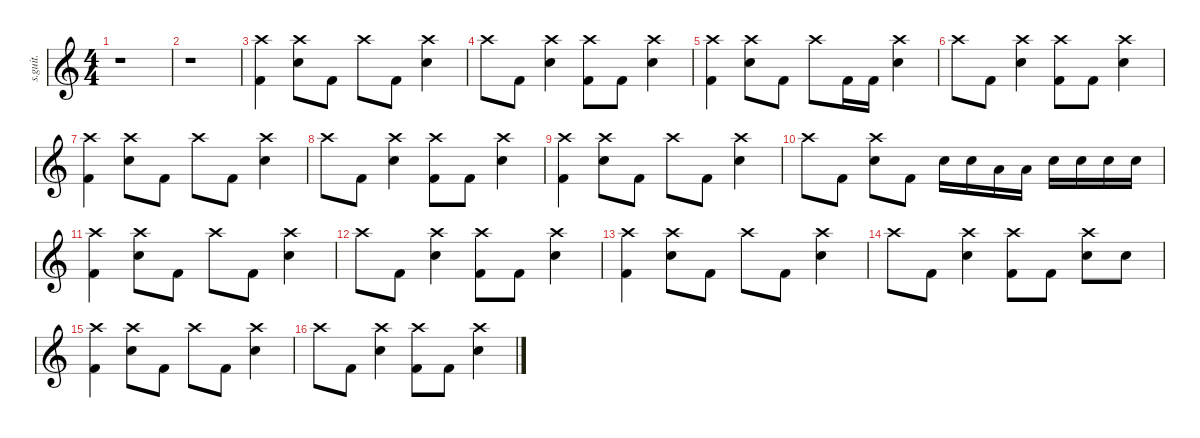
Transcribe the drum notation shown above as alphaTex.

\defaultSystemsLayout 4
\hideDynamics
\bracketExtendMode nobrackets
\track ("" "s.guit.") {instrument percussion}
\staff {score}
\articulation defaults
\ts (4 4)
\beaming (8 2 2 2 2)
\tempo (190 hide)
\clef g2
\ks c
r.1{dy f} |
r.1 |
("Crash high (hit)" "Kick (hit) 2").4 ("Crash high (hit)" "Snare (hit) 2").8 "Kick (hit) 2".8 "Crash high (hit)".8 "Kick (hit) 2".8 ("Crash high (hit)" "Snare (hit) 2").4 |
"Crash high (hit)".8 "Kick (hit) 2".8 ("Crash high (hit)" "Snare (hit) 2").4 ("Crash high (hit)" "Kick (hit) 2").8 "Kick (hit) 2".8 ("Crash high (hit)" "Snare (hit) 2").4 |
("Crash high (hit)" "Kick (hit) 2").4 ("Crash high (hit)" "Snare (hit) 2").8 "Kick (hit) 2".8 "Crash high (hit)".8 "Kick (hit) 2".16 "Kick (hit) 2".16 ("Crash high (hit)" "Snare (hit) 2").4 |
"Crash high (hit)".8 "Kick (hit) 2".8 ("Crash high (hit)" "Snare (hit) 2").4 ("Crash high (hit)" "Kick (hit) 2").8 "Kick (hit) 2".8 ("Crash high (hit)" "Snare (hit) 2").4 |
("Crash high (hit)" "Kick (hit) 2").4 ("Crash high (hit)" "Snare (hit) 2").8 "Kick (hit) 2".8 "Crash high (hit)".8 "Kick (hit) 2".8 ("Crash high (hit)" "Snare (hit) 2").4 |
"Crash high (hit)".8 "Kick (hit) 2".8 ("Crash high (hit)" "Snare (hit) 2").4 ("Crash high (hit)" "Kick (hit) 2").8 "Kick (hit) 2".8 ("Crash high (hit)" "Snare (hit) 2").4 |
("Crash high (hit)" "Kick (hit) 2").4 ("Crash high (hit)" "Snare (hit) 2").8 "Kick (hit) 2".8 "Crash high (hit)".8 "Kick (hit) 2".8 ("Crash high (hit)" "Snare (hit) 2").4 |
"Crash high (hit)".8 "Kick (hit) 2".8 ("Crash high (hit)" "Snare (hit) 2").8 "Kick (hit) 2".8 "Snare (hit) 2".16 "Snare (hit) 2".16 "Low Tom (hit)".16 "Low Tom (hit)".16 "Snare (hit) 2".16 "Snare (hit) 2".16 "Snare (hit) 2".16 "Snare (hit) 2".16 |
("Crash high (hit)" "Kick (hit) 2").4 ("Crash high (hit)" "Snare (hit) 2").8 "Kick (hit) 2".8 "Crash high (hit)".8 "Kick (hit) 2".8 ("Crash high (hit)" "Snare (hit) 2").4 |
"Crash high (hit)".8 "Kick (hit) 2".8 ("Crash high (hit)" "Snare (hit) 2").4 ("Crash high (hit)" "Kick (hit) 2").8 "Kick (hit) 2".8 ("Crash high (hit)" "Snare (hit) 2").4 |
("Crash high (hit)" "Kick (hit) 2").4 ("Crash high (hit)" "Snare (hit) 2").8 "Kick (hit) 2".8 "Crash high (hit)".8 "Kick (hit) 2".8 ("Crash high (hit)" "Snare (hit) 2").4 |
"Crash high (hit)".8 "Kick (hit) 2".8 ("Crash high (hit)" "Snare (hit) 2").4 ("Crash high (hit)" "Kick (hit) 2").8 "Kick (hit) 2".8 ("Crash high (hit)" "Snare (hit) 2").8 "Snare (hit) 2".8 |
("Crash high (hit)" "Kick (hit) 2").4 ("Crash high (hit)" "Snare (hit) 2").8 "Kick (hit) 2".8 "Crash high (hit)".8 "Kick (hit) 2".8 ("Crash high (hit)" "Snare (hit) 2").4 |
"Crash high (hit)".8 "Kick (hit) 2".8 ("Crash high (hit)" "Snare (hit) 2").4 ("Crash high (hit)" "Kick (hit) 2").8 "Kick (hit) 2".8 ("Crash high (hit)" "Snare (hit) 2").4
